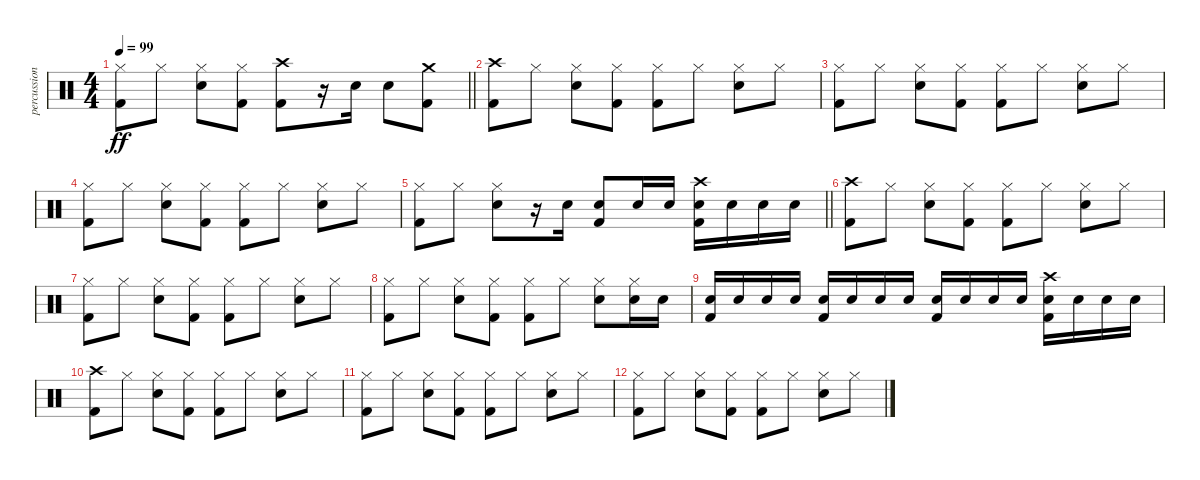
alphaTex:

\track ("percussion" "percussion") {instrument percussion}
\staff {score}
\articulation defaults
\ts (4 4)
\tempo 99
\clef neutral
\barLineRight lightlight
\ks c
("Hi-Hat (closed)" "Kick (hit) 2").8{dy ff} "Hi-Hat (closed)".8 ("Snare (hit) 2" "Hi-Hat (closed)").8 ("Hi-Hat (closed)" "Kick (hit) 2").8 ("Crash high (hit)" "Kick (hit) 2").8 r.16 "Snare (hit) 2".16 "Snare (hit) 2".8 ("Crash medium (hit)" "Kick (hit) 2").8 |
("Crash high (hit)" "Kick (hit) 2").8 "Hi-Hat (closed)".8 ("Snare (hit) 2" "Hi-Hat (closed)").8 ("Hi-Hat (closed)" "Kick (hit) 2").8 ("Hi-Hat (closed)" "Kick (hit) 2").8 "Hi-Hat (closed)".8 ("Snare (hit) 2" "Hi-Hat (closed)").8 "Hi-Hat (closed)".8 |
("Hi-Hat (closed)" "Kick (hit) 2").8 "Hi-Hat (closed)".8 ("Snare (hit) 2" "Hi-Hat (closed)").8 ("Hi-Hat (closed)" "Kick (hit) 2").8 ("Hi-Hat (closed)" "Kick (hit) 2").8 "Hi-Hat (closed)".8 ("Snare (hit) 2" "Hi-Hat (closed)").8 "Hi-Hat (closed)".8 |
("Hi-Hat (closed)" "Kick (hit) 2").8 "Hi-Hat (closed)".8 ("Snare (hit) 2" "Hi-Hat (closed)").8 ("Hi-Hat (closed)" "Kick (hit) 2").8 ("Hi-Hat (closed)" "Kick (hit) 2").8 "Hi-Hat (closed)".8 ("Snare (hit) 2" "Hi-Hat (closed)").8 "Hi-Hat (closed)".8 |
\barLineRight lightlight
("Hi-Hat (closed)" "Kick (hit) 2").8 "Hi-Hat (closed)".8 ("Snare (hit) 2" "Hi-Hat (closed)").8 r.16 "Snare (hit) 2".16 ("Snare (hit) 2" "Kick (hit) 2").8 "Snare (hit) 2".16 "Snare (hit) 2".16 ("Crash high (hit)" "Snare (hit) 2" "Kick (hit) 2").16 "Snare (hit) 2".16 "Snare (hit) 2".16 "Snare (hit) 2".16 |
("Crash high (hit)" "Kick (hit) 2").8 "Hi-Hat (closed)".8 ("Snare (hit) 2" "Hi-Hat (closed)").8 ("Hi-Hat (closed)" "Kick (hit) 2").8 ("Hi-Hat (closed)" "Kick (hit) 2").8 "Hi-Hat (closed)".8 ("Snare (hit) 2" "Hi-Hat (closed)").8 "Hi-Hat (closed)".8 |
("Hi-Hat (closed)" "Kick (hit) 2").8 "Hi-Hat (closed)".8 ("Snare (hit) 2" "Hi-Hat (closed)").8 ("Hi-Hat (closed)" "Kick (hit) 2").8 ("Hi-Hat (closed)" "Kick (hit) 2").8 "Hi-Hat (closed)".8 ("Snare (hit) 2" "Hi-Hat (closed)").8 "Hi-Hat (closed)".8 |
("Hi-Hat (closed)" "Kick (hit) 2").8 "Hi-Hat (closed)".8 ("Snare (hit) 2" "Hi-Hat (closed)").8 ("Hi-Hat (closed)" "Kick (hit) 2").8 ("Hi-Hat (closed)" "Kick (hit) 2").8 "Hi-Hat (closed)".8 ("Snare (hit) 2" "Hi-Hat (closed)").8 ("Snare (hit) 2" "Hi-Hat (closed)").16 "Snare (hit) 2".16 |
("Snare (hit) 2" "Kick (hit) 2").16 "Snare (hit) 2".16 "Snare (hit) 2".16 "Snare (hit) 2".16 ("Snare (hit) 2" "Kick (hit) 2").16 "Snare (hit) 2".16 "Snare (hit) 2".16 "Snare (hit) 2".16 ("Snare (hit) 2" "Kick (hit) 2").16 "Snare (hit) 2".16 "Snare (hit) 2".16 "Snare (hit) 2".16 ("Crash high (hit)" "Snare (hit) 2" "Kick (hit) 2").16 "Snare (hit) 2".16 "Snare (hit) 2".16 "Snare (hit) 2".16 |
("Crash high (hit)" "Kick (hit) 2").8 "Hi-Hat (closed)".8 ("Snare (hit) 2" "Hi-Hat (closed)").8 ("Hi-Hat (closed)" "Kick (hit) 2").8 ("Hi-Hat (closed)" "Kick (hit) 2").8 "Hi-Hat (closed)".8 ("Snare (hit) 2" "Hi-Hat (closed)").8 "Hi-Hat (closed)".8 |
("Hi-Hat (closed)" "Kick (hit) 2").8 "Hi-Hat (closed)".8 ("Snare (hit) 2" "Hi-Hat (closed)").8 ("Hi-Hat (closed)" "Kick (hit) 2").8 ("Hi-Hat (closed)" "Kick (hit) 2").8 "Hi-Hat (closed)".8 ("Snare (hit) 2" "Hi-Hat (closed)").8 "Hi-Hat (closed)".8 |
("Hi-Hat (closed)" "Kick (hit) 2").8 "Hi-Hat (closed)".8 ("Snare (hit) 2" "Hi-Hat (closed)").8 ("Hi-Hat (closed)" "Kick (hit) 2").8 ("Hi-Hat (closed)" "Kick (hit) 2").8 "Hi-Hat (closed)".8 ("Snare (hit) 2" "Hi-Hat (closed)").8 "Hi-Hat (closed)".8
